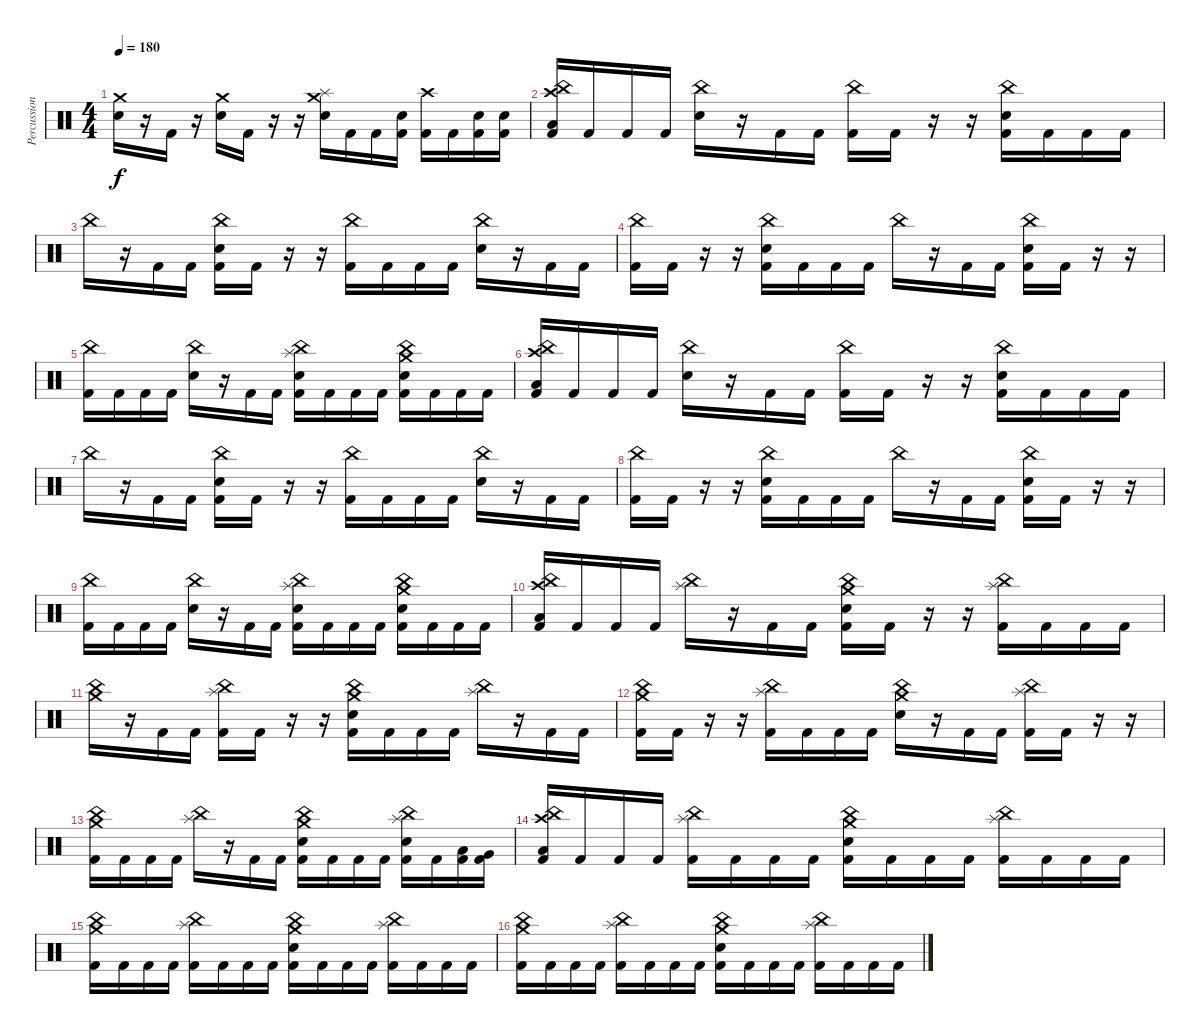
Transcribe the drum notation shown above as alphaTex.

\track ("Percussion" "Percussion") {instrument percussion}
\staff {score}
\articulation defaults
\ts (4 4)
\tempo 180
\clef neutral
\ks c
("Crash medium (hit)" "Electric Snare (hit)").16{dy f} r.16 "Kick (hit) 2".16 r.16 ("Crash medium (hit)" "Electric Snare (hit)").16 "Kick (hit) 2".16 r.16 r.16 ("Crash medium (hit)" "Splash (hit)" "Electric Snare (hit)").16 "Kick (hit) 2".16 "Kick (hit) 2".16 ("Electric Snare (hit)" "Kick (hit) 2").16 ("Crash high (hit)" "Kick (hit) 2").16 "Kick (hit) 2".16 ("Electric Snare (hit)" "Kick (hit) 2").16 ("Electric Snare (hit)" "Kick (hit) 2").16 |
("China (hit)" "Crash high (hit)" "Low Floor Tom (hit)" "Kick (hit) 2").16 "Kick (hit) 2".16 "Kick (hit) 2".16 "Kick (hit) 2".16 ("China (hit)" "Electric Snare (hit)").16 r.16 "Kick (hit) 2".16 "Kick (hit) 2".16 ("China (hit)" "Kick (hit) 2").16 "Kick (hit) 2".16 r.16 r.16 ("China (hit)" "Electric Snare (hit)" "Kick (hit) 2").16 "Kick (hit) 2".16 "Kick (hit) 2".16 "Kick (hit) 2".16 |
"China (hit)".16 r.16 "Kick (hit) 2".16 "Kick (hit) 2".16 ("China (hit)" "Electric Snare (hit)" "Kick (hit) 2").16 "Kick (hit) 2".16 r.16 r.16 ("China (hit)" "Kick (hit) 2").16 "Kick (hit) 2".16 "Kick (hit) 2".16 "Kick (hit) 2".16 ("China (hit)" "Electric Snare (hit)").16 r.16 "Kick (hit) 2".16 "Kick (hit) 2".16 |
("China (hit)" "Kick (hit) 2").16 "Kick (hit) 2".16 r.16 r.16 ("China (hit)" "Electric Snare (hit)" "Kick (hit) 2").16 "Kick (hit) 2".16 "Kick (hit) 2".16 "Kick (hit) 2".16 "China (hit)".16 r.16 "Kick (hit) 2".16 "Kick (hit) 2".16 ("China (hit)" "Electric Snare (hit)" "Kick (hit) 2").16 "Kick (hit) 2".16 r.16 r.16 |
("China (hit)" "Kick (hit) 2").16 "Kick (hit) 2".16 "Kick (hit) 2".16 "Kick (hit) 2".16 ("China (hit)" "Electric Snare (hit)").16 r.16 "Kick (hit) 2".16 "Kick (hit) 2".16 ("China (hit)" "Splash (hit)" "Electric Snare (hit)" "Kick (hit) 2").16 "Kick (hit) 2".16 "Kick (hit) 2".16 "Kick (hit) 2".16 ("China (hit)" "Crash medium (hit)" "Electric Snare (hit)" "Kick (hit) 2").16 "Kick (hit) 2".16 "Kick (hit) 2".16 "Kick (hit) 2".16 |
("China (hit)" "Crash high (hit)" "Low Floor Tom (hit)" "Kick (hit) 2").16 "Kick (hit) 2".16 "Kick (hit) 2".16 "Kick (hit) 2".16 ("China (hit)" "Electric Snare (hit)").16 r.16 "Kick (hit) 2".16 "Kick (hit) 2".16 ("China (hit)" "Kick (hit) 2").16 "Kick (hit) 2".16 r.16 r.16 ("China (hit)" "Electric Snare (hit)" "Kick (hit) 2").16 "Kick (hit) 2".16 "Kick (hit) 2".16 "Kick (hit) 2".16 |
"China (hit)".16 r.16 "Kick (hit) 2".16 "Kick (hit) 2".16 ("China (hit)" "Electric Snare (hit)" "Kick (hit) 2").16 "Kick (hit) 2".16 r.16 r.16 ("China (hit)" "Kick (hit) 2").16 "Kick (hit) 2".16 "Kick (hit) 2".16 "Kick (hit) 2".16 ("China (hit)" "Electric Snare (hit)").16 r.16 "Kick (hit) 2".16 "Kick (hit) 2".16 |
("China (hit)" "Kick (hit) 2").16 "Kick (hit) 2".16 r.16 r.16 ("China (hit)" "Electric Snare (hit)" "Kick (hit) 2").16 "Kick (hit) 2".16 "Kick (hit) 2".16 "Kick (hit) 2".16 "China (hit)".16 r.16 "Kick (hit) 2".16 "Kick (hit) 2".16 ("China (hit)" "Electric Snare (hit)" "Kick (hit) 2").16 "Kick (hit) 2".16 r.16 r.16 |
("China (hit)" "Kick (hit) 2").16 "Kick (hit) 2".16 "Kick (hit) 2".16 "Kick (hit) 2".16 ("China (hit)" "Electric Snare (hit)").16 r.16 "Kick (hit) 2".16 "Kick (hit) 2".16 ("China (hit)" "Splash (hit)" "Electric Snare (hit)" "Kick (hit) 2").16 "Kick (hit) 2".16 "Kick (hit) 2".16 "Kick (hit) 2".16 ("China (hit)" "Crash medium (hit)" "Electric Snare (hit)" "Kick (hit) 2").16 "Kick (hit) 2".16 "Kick (hit) 2".16 "Kick (hit) 2".16 |
("China (hit)" "Crash high (hit)" "Low Floor Tom (hit)" "Kick (hit) 2").16 "Kick (hit) 2".16 "Kick (hit) 2".16 "Kick (hit) 2".16 ("China (hit)" "Splash (hit)").16 r.16 "Kick (hit) 2".16 "Kick (hit) 2".16 ("China (hit)" "Crash medium (hit)" "Electric Snare (hit)" "Kick (hit) 2").16 "Kick (hit) 2".16 r.16 r.16 ("China (hit)" "Splash (hit)" "Kick (hit) 2").16 "Kick (hit) 2".16 "Kick (hit) 2".16 "Kick (hit) 2".16 |
("China (hit)" "Crash medium (hit)").16 r.16 "Kick (hit) 2".16 "Kick (hit) 2".16 ("China (hit)" "Splash (hit)" "Kick (hit) 2").16 "Kick (hit) 2".16 r.16 r.16 ("China (hit)" "Crash medium (hit)" "Electric Snare (hit)" "Kick (hit) 2").16 "Kick (hit) 2".16 "Kick (hit) 2".16 "Kick (hit) 2".16 ("China (hit)" "Splash (hit)").16 r.16 "Kick (hit) 2".16 "Kick (hit) 2".16 |
("China (hit)" "Crash medium (hit)" "Kick (hit) 2").16 "Kick (hit) 2".16 r.16 r.16 ("China (hit)" "Splash (hit)" "Kick (hit) 2").16 "Kick (hit) 2".16 "Kick (hit) 2".16 "Kick (hit) 2".16 ("China (hit)" "Crash medium (hit)" "Electric Snare (hit)").16 r.16 "Kick (hit) 2".16 "Kick (hit) 2".16 ("China (hit)" "Splash (hit)" "Kick (hit) 2").16 "Kick (hit) 2".16 r.16 r.16 |
("China (hit)" "Crash medium (hit)" "Kick (hit) 2").16 "Kick (hit) 2".16 "Kick (hit) 2".16 "Kick (hit) 2".16 ("China (hit)" "Splash (hit)").16 r.16 "Kick (hit) 2".16 "Kick (hit) 2".16 ("China (hit)" "Crash medium (hit)" "Electric Snare (hit)" "Kick (hit) 2").16 "Kick (hit) 2".16 "Kick (hit) 2".16 "Kick (hit) 2".16 ("China (hit)" "Splash (hit)" "Electric Snare (hit)" "Kick (hit) 2").16 "Kick (hit) 2".16 ("Low Tom (hit)" "Kick (hit) 2").16 ("Very Low Tom (hit)" "Kick (hit) 2").16 |
("China (hit)" "Crash high (hit)" "Low Floor Tom (hit)" "Kick (hit) 2").16 "Kick (hit) 2".16 "Kick (hit) 2".16 "Kick (hit) 2".16 ("China (hit)" "Splash (hit)" "Kick (hit) 2").16 "Kick (hit) 2".16 "Kick (hit) 2".16 "Kick (hit) 2".16 ("China (hit)" "Crash medium (hit)" "Electric Snare (hit)" "Kick (hit) 2").16 "Kick (hit) 2".16 "Kick (hit) 2".16 "Kick (hit) 2".16 ("China (hit)" "Splash (hit)" "Kick (hit) 2").16 "Kick (hit) 2".16 "Kick (hit) 2".16 "Kick (hit) 2".16 |
("China (hit)" "Crash medium (hit)" "Kick (hit) 2").16 "Kick (hit) 2".16 "Kick (hit) 2".16 "Kick (hit) 2".16 ("China (hit)" "Splash (hit)" "Kick (hit) 2").16 "Kick (hit) 2".16 "Kick (hit) 2".16 "Kick (hit) 2".16 ("China (hit)" "Crash medium (hit)" "Electric Snare (hit)" "Kick (hit) 2").16 "Kick (hit) 2".16 "Kick (hit) 2".16 "Kick (hit) 2".16 ("China (hit)" "Splash (hit)" "Kick (hit) 2").16 "Kick (hit) 2".16 "Kick (hit) 2".16 "Kick (hit) 2".16 |
("China (hit)" "Crash medium (hit)" "Kick (hit) 2").16 "Kick (hit) 2".16 "Kick (hit) 2".16 "Kick (hit) 2".16 ("China (hit)" "Splash (hit)" "Kick (hit) 2").16 "Kick (hit) 2".16 "Kick (hit) 2".16 "Kick (hit) 2".16 ("China (hit)" "Crash medium (hit)" "Electric Snare (hit)" "Kick (hit) 2").16 "Kick (hit) 2".16 "Kick (hit) 2".16 "Kick (hit) 2".16 ("China (hit)" "Splash (hit)" "Kick (hit) 2").16 "Kick (hit) 2".16 "Kick (hit) 2".16 "Kick (hit) 2".16
